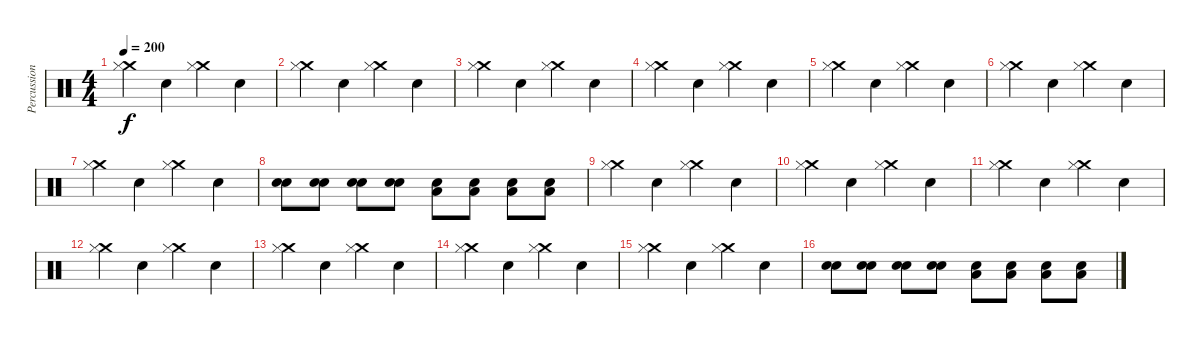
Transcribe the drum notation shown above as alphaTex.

\track ("Percussion" "Percussion") {instrument percussion}
\staff {score}
\articulation defaults
\ts (4 4)
\tempo 200
\clef neutral
\ks c
("Crash medium (hit)" "Hi-Hat (closed)").4{dy f} "Snare (hit) 2".4 ("Crash medium (hit)" "Hi-Hat (closed)").4 "Snare (hit) 2".4 |
("Crash medium (hit)" "Hi-Hat (closed)").4 "Snare (hit) 2".4 ("Crash medium (hit)" "Hi-Hat (closed)").4 "Snare (hit) 2".4 |
("Crash medium (hit)" "Hi-Hat (closed)").4 "Snare (hit) 2".4 ("Crash medium (hit)" "Hi-Hat (closed)").4 "Snare (hit) 2".4 |
("Crash medium (hit)" "Hi-Hat (closed)").4 "Snare (hit) 2".4 ("Crash medium (hit)" "Hi-Hat (closed)").4 "Snare (hit) 2".4 |
("Crash medium (hit)" "Hi-Hat (closed)").4 "Snare (hit) 2".4 ("Crash medium (hit)" "Hi-Hat (closed)").4 "Snare (hit) 2".4 |
("Crash medium (hit)" "Hi-Hat (closed)").4 "Snare (hit) 2".4 ("Crash medium (hit)" "Hi-Hat (closed)").4 "Snare (hit) 2".4 |
("Crash medium (hit)" "Hi-Hat (closed)").4 "Snare (hit) 2".4 ("Crash medium (hit)" "Hi-Hat (closed)").4 "Snare (hit) 2".4 |
("Snare (hit) 2" "Snare (hit) 2").8 ("Snare (hit) 2" "Snare (hit) 2").8 ("Snare (hit) 2" "Snare (hit) 2").8 ("Snare (hit) 2" "Snare (hit) 2").8 ("Low Floor Tom (hit)" "Snare (hit) 2").8 ("Low Floor Tom (hit)" "Snare (hit) 2").8 ("Low Floor Tom (hit)" "Snare (hit) 2").8 ("Low Floor Tom (hit)" "Snare (hit) 2").8 |
("Crash medium (hit)" "Hi-Hat (closed)").4 "Snare (hit) 2".4 ("Crash medium (hit)" "Hi-Hat (closed)").4 "Snare (hit) 2".4 |
("Crash medium (hit)" "Hi-Hat (closed)").4 "Snare (hit) 2".4 ("Crash medium (hit)" "Hi-Hat (closed)").4 "Snare (hit) 2".4 |
("Crash medium (hit)" "Hi-Hat (closed)").4 "Snare (hit) 2".4 ("Crash medium (hit)" "Hi-Hat (closed)").4 "Snare (hit) 2".4 |
("Crash medium (hit)" "Hi-Hat (closed)").4 "Snare (hit) 2".4 ("Crash medium (hit)" "Hi-Hat (closed)").4 "Snare (hit) 2".4 |
("Crash medium (hit)" "Hi-Hat (closed)").4 "Snare (hit) 2".4 ("Crash medium (hit)" "Hi-Hat (closed)").4 "Snare (hit) 2".4 |
("Crash medium (hit)" "Hi-Hat (closed)").4 "Snare (hit) 2".4 ("Crash medium (hit)" "Hi-Hat (closed)").4 "Snare (hit) 2".4 |
("Crash medium (hit)" "Hi-Hat (closed)").4 "Snare (hit) 2".4 ("Crash medium (hit)" "Hi-Hat (closed)").4 "Snare (hit) 2".4 |
("Snare (hit) 2" "Snare (hit) 2").8 ("Snare (hit) 2" "Snare (hit) 2").8 ("Snare (hit) 2" "Snare (hit) 2").8 ("Snare (hit) 2" "Snare (hit) 2").8 ("Low Floor Tom (hit)" "Snare (hit) 2").8 ("Low Floor Tom (hit)" "Snare (hit) 2").8 ("Low Floor Tom (hit)" "Snare (hit) 2").8 ("Low Floor Tom (hit)" "Snare (hit) 2").8
